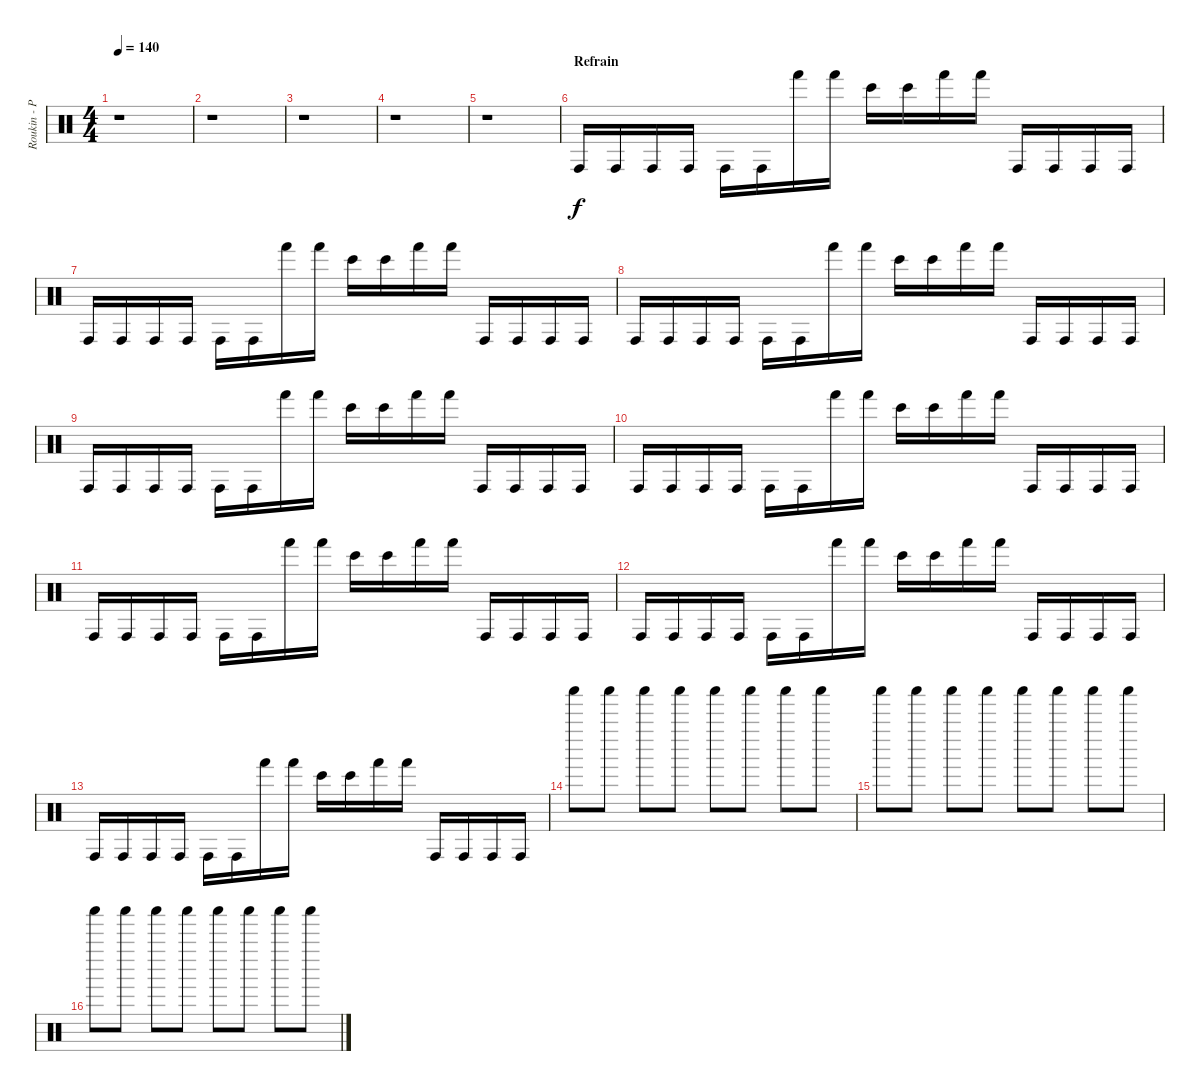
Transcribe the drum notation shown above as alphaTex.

\track ("Roukin - Percus" "Roukin - P") {instrument percussion}
\staff {score}
\articulation defaults
\ts (4 4)
\tempo 140
\clef neutral
\ks c
r.1{dy f} |
r.1 |
r.1 |
r.1 |
r.1 |
\section ("" "Refrain")
"Conga high (hit)".16 "Conga high (hit)".16 "Conga high (hit)".16 "Conga high (hit)".16 "Conga high (hit)".16 "Conga high (hit)".16 "Hand (hit)".16 "Hand (hit)".16 "Bongo High (hit)".16 "Bongo High (hit)".16 "Hand (hit)".16 "Hand (hit)".16 "Conga high (hit)".16 "Conga high (hit)".16 "Conga high (hit)".16 "Conga high (hit)".16 |
"Conga high (hit)".16 "Conga high (hit)".16 "Conga high (hit)".16 "Conga high (hit)".16 "Conga high (hit)".16 "Conga high (hit)".16 "Hand (hit)".16 "Hand (hit)".16 "Bongo High (hit)".16 "Bongo High (hit)".16 "Hand (hit)".16 "Hand (hit)".16 "Conga high (hit)".16 "Conga high (hit)".16 "Conga high (hit)".16 "Conga high (hit)".16 |
"Conga high (hit)".16 "Conga high (hit)".16 "Conga high (hit)".16 "Conga high (hit)".16 "Conga high (hit)".16 "Conga high (hit)".16 "Hand (hit)".16 "Hand (hit)".16 "Bongo High (hit)".16 "Bongo High (hit)".16 "Hand (hit)".16 "Hand (hit)".16 "Conga high (hit)".16 "Conga high (hit)".16 "Conga high (hit)".16 "Conga high (hit)".16 |
"Conga high (hit)".16 "Conga high (hit)".16 "Conga high (hit)".16 "Conga high (hit)".16 "Conga high (hit)".16 "Conga high (hit)".16 "Hand (hit)".16 "Hand (hit)".16 "Bongo High (hit)".16 "Bongo High (hit)".16 "Hand (hit)".16 "Hand (hit)".16 "Conga high (hit)".16 "Conga high (hit)".16 "Conga high (hit)".16 "Conga high (hit)".16 |
"Conga high (hit)".16 "Conga high (hit)".16 "Conga high (hit)".16 "Conga high (hit)".16 "Conga high (hit)".16 "Conga high (hit)".16 "Hand (hit)".16 "Hand (hit)".16 "Bongo High (hit)".16 "Bongo High (hit)".16 "Hand (hit)".16 "Hand (hit)".16 "Conga high (hit)".16 "Conga high (hit)".16 "Conga high (hit)".16 "Conga high (hit)".16 |
"Conga high (hit)".16 "Conga high (hit)".16 "Conga high (hit)".16 "Conga high (hit)".16 "Conga high (hit)".16 "Conga high (hit)".16 "Hand (hit)".16 "Hand (hit)".16 "Bongo High (hit)".16 "Bongo High (hit)".16 "Hand (hit)".16 "Hand (hit)".16 "Conga high (hit)".16 "Conga high (hit)".16 "Conga high (hit)".16 "Conga high (hit)".16 |
"Conga high (hit)".16 "Conga high (hit)".16 "Conga high (hit)".16 "Conga high (hit)".16 "Conga high (hit)".16 "Conga high (hit)".16 "Hand (hit)".16 "Hand (hit)".16 "Bongo High (hit)".16 "Bongo High (hit)".16 "Hand (hit)".16 "Hand (hit)".16 "Conga high (hit)".16 "Conga high (hit)".16 "Conga high (hit)".16 "Conga high (hit)".16 |
"Conga high (hit)".16 "Conga high (hit)".16 "Conga high (hit)".16 "Conga high (hit)".16 "Conga high (hit)".16 "Conga high (hit)".16 "Hand (hit)".16 "Hand (hit)".16 "Bongo High (hit)".16 "Bongo High (hit)".16 "Hand (hit)".16 "Hand (hit)".16 "Conga high (hit)".16 "Conga high (hit)".16 "Conga high (hit)".16 "Conga high (hit)".16 |
"Shaker (hit)".8 "Shaker (hit)".8 "Shaker (hit)".8 "Shaker (hit)".8 "Shaker (hit)".8 "Shaker (hit)".8 "Shaker (hit)".8 "Shaker (hit)".8 |
"Shaker (hit)".8 "Shaker (hit)".8 "Shaker (hit)".8 "Shaker (hit)".8 "Shaker (hit)".8 "Shaker (hit)".8 "Shaker (hit)".8 "Shaker (hit)".8 |
"Shaker (hit)".8 "Shaker (hit)".8 "Shaker (hit)".8 "Shaker (hit)".8 "Shaker (hit)".8 "Shaker (hit)".8 "Shaker (hit)".8 "Shaker (hit)".8
